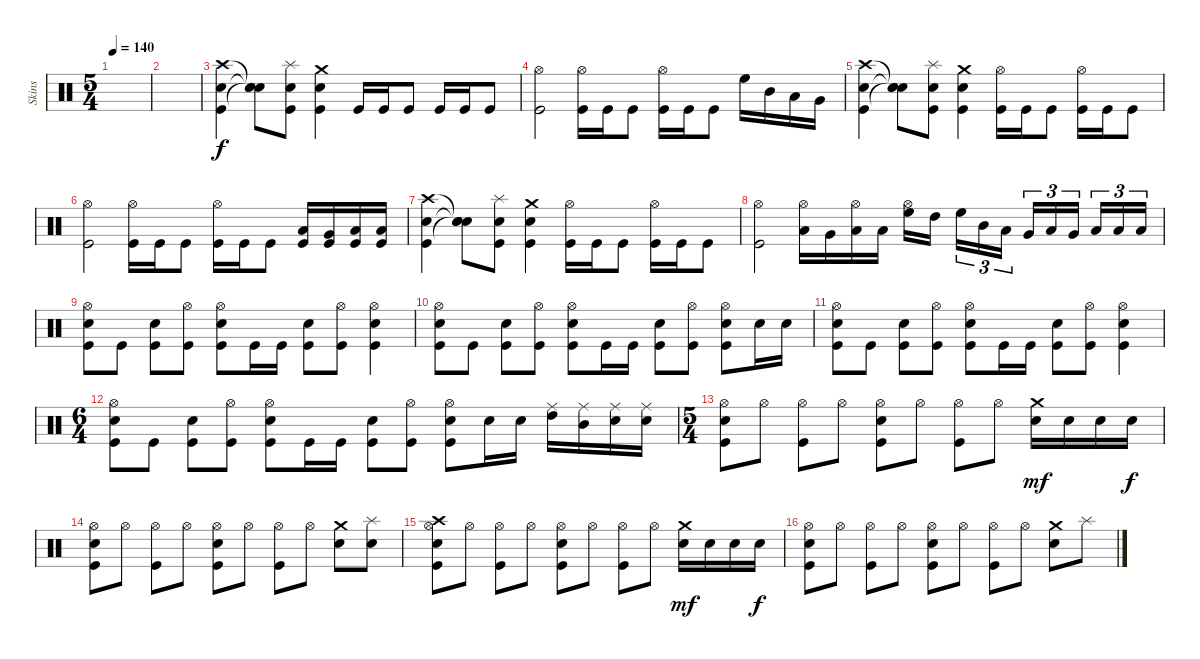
\track ("Skins" "Skins") {instrument percussion}
\staff {score}
\articulation defaults
\ts (5 4)
\tempo 140
\clef neutral
\ks c
|
|
("Crash high (hit)" "Electric Snare (hit)" "Kick (hit)").4 ("Snare (hit)"{t} "Snare (hit)"{t} "Snare (hit)"{t}).8 ("Splash (hit)" "Snare (hit) 2" "Kick (hit)").8 ("Crash medium (hit)" "Snare (hit) 2" "Kick (hit)").4 "Kick (hit)".16 "Kick (hit)".16 "Kick (hit)".8 "Kick (hit)".16 "Kick (hit)".16 "Kick (hit)".8 |
("Hi-Hat (open)" "Kick (hit)").2 ("Hi-Hat (open)" "Kick (hit)").16 "Kick (hit)".16 "Kick (hit)".8 ("Hi-Hat (open)" "Kick (hit)").16 "Kick (hit)".16 "Kick (hit)".8 "High Floor Tom (hit)".16 "Mid Tom (hit)".16 "Low Tom (hit)".16 "Very Low Tom (hit)".16 |
("Crash high (hit)" "Electric Snare (hit)" "Kick (hit)").4 ("Snare (hit)"{t} "Snare (hit)"{t} "Snare (hit)"{t}).8 ("Splash (hit)" "Snare (hit) 2" "Kick (hit)").8 ("Crash medium (hit)" "Snare (hit) 2" "Kick (hit)").4 ("Hi-Hat (open)" "Kick (hit)").16 "Kick (hit)".16 "Kick (hit)".8 ("Hi-Hat (open)" "Kick (hit)").16 "Kick (hit)".16 "Kick (hit)".8 |
("Hi-Hat (open)" "Kick (hit)").2 ("Hi-Hat (open)" "Kick (hit)").16 "Kick (hit)".16 "Kick (hit)".8 ("Hi-Hat (open)" "Kick (hit)").16 "Kick (hit)".16 "Kick (hit)".8 ("Low Tom (hit)" "Kick (hit)").16 ("Very Low Tom (hit)" "Kick (hit)").16 ("Low Floor Tom (hit)" "Kick (hit)").16 ("Low Floor Tom (hit)" "Kick (hit)").16 |
("Crash high (hit)" "Electric Snare (hit)" "Kick (hit)").4 ("Snare (hit)"{t} "Snare (hit)"{t} "Snare (hit)"{t}).8 ("Splash (hit)" "Snare (hit) 2" "Kick (hit)").8 ("Crash medium (hit)" "Snare (hit) 2" "Kick (hit)").4 ("Hi-Hat (open)" "Kick (hit)").16 "Kick (hit)".16 "Kick (hit)".8 ("Hi-Hat (open)" "Kick (hit)").16 "Kick (hit)".16 "Kick (hit)".8 |
("Hi-Hat (open)" "Kick (hit)").2 ("Low Tom (hit)" "Hi-Hat (open)").16 "Very Low Tom (hit)".16 ("Low Floor Tom (hit)" "Hi-Hat (open)").16 "Low Floor Tom (hit)".16 ("High Floor Tom (hit)" "Hi-Hat (open)").16 "High Tom (hit)".16 "High Floor Tom (hit)".16{tu (3 2)} "Mid Tom (hit)".16{tu (3 2)} "Low Tom (hit)".16{tu (3 2)} "Very Low Tom (hit)".16{tu (3 2)} "Low Floor Tom (hit)".16{tu (3 2)} "Very Low Tom (hit)".16{tu (3 2)} "Low Floor Tom (hit)".16{tu (3 2)} "Low Floor Tom (hit)".16{tu (3 2)} "Low Floor Tom (hit)".16{tu (3 2)} |
("Hi-Hat (open)" "Snare (hit) 2" "Kick (hit)").8 "Kick (hit)".8 ("Snare (hit) 2" "Kick (hit)").8 ("Hi-Hat (open)" "Kick (hit)").8 ("Hi-Hat (open)" "Snare (hit) 2" "Kick (hit)").8 "Kick (hit)".16 "Kick (hit)".16 ("Snare (hit) 2" "Kick (hit)").8 ("Hi-Hat (open)" "Kick (hit)").8 ("Hi-Hat (open)" "Electric Snare (hit)" "Kick (hit)").4 |
("Hi-Hat (open)" "Snare (hit) 2" "Kick (hit)").8 "Kick (hit)".8 ("Snare (hit) 2" "Kick (hit)").8 ("Hi-Hat (open)" "Kick (hit)").8 ("Hi-Hat (open)" "Snare (hit) 2" "Kick (hit)").8 "Kick (hit)".16 "Kick (hit)".16 ("Snare (hit) 2" "Kick (hit)").8 ("Hi-Hat (open)" "Kick (hit)").8 ("Hi-Hat (open)" "Electric Snare (hit)" "Kick (hit)").8 "Electric Snare (hit)".16 "Electric Snare (hit)".16 |
("Hi-Hat (open)" "Snare (hit) 2" "Kick (hit)").8 "Kick (hit)".8 ("Snare (hit) 2" "Kick (hit)").8 ("Hi-Hat (open)" "Kick (hit)").8 ("Hi-Hat (open)" "Snare (hit) 2" "Kick (hit)").8 "Kick (hit)".16 "Kick (hit)".16 ("Snare (hit) 2" "Kick (hit)").8 ("Hi-Hat (open)" "Kick (hit)").8 ("Hi-Hat (open)" "Electric Snare (hit)" "Kick (hit)").4 |
\ts (6 4)
("Hi-Hat (open)" "Snare (hit) 2" "Kick (hit)").8 "Kick (hit)".8 ("Snare (hit) 2" "Kick (hit)").8 ("Hi-Hat (open)" "Kick (hit)").8 ("Hi-Hat (open)" "Snare (hit) 2" "Kick (hit)").8 "Kick (hit)".16 "Kick (hit)".16 ("Snare (hit) 2" "Kick (hit)").8 ("Hi-Hat (open)" "Kick (hit)").8 ("Hi-Hat (open)" "Electric Snare (hit)" "Kick (hit)").8 "Electric Snare (hit)".16 "Electric Snare (hit)".16 ("Ride (middle)" "High Tom (hit)").16 ("Ride (middle)" "Mid Tom (hit)").16 ("Ride (middle)" "Snare (hit) 2").16 ("Ride (middle)" "Snare (hit) 2").16 |
\ts (5 4)
("Hi-Hat (open)" "Snare (hit) 2" "Kick (hit)").8 "Hi-Hat (open)".8 ("Hi-Hat (open)" "Kick (hit)").8 "Hi-Hat (open)".8 ("Hi-Hat (open)" "Snare (hit) 2" "Kick (hit)").8 "Hi-Hat (open)".8 ("Hi-Hat (open)" "Kick (hit)").8 "Hi-Hat (open)".8 ("Crash medium (hit)" "Electric Snare (hit)").16{dy mf} "Electric Snare (hit)".16 "Electric Snare (hit)".16 "Electric Snare (hit)".16{dy f} |
("Hi-Hat (open)" "Snare (hit) 2" "Kick (hit)").8 "Hi-Hat (open)".8 ("Hi-Hat (open)" "Kick (hit)").8 "Hi-Hat (open)".8 ("Hi-Hat (open)" "Snare (hit) 2" "Kick (hit)").8 "Hi-Hat (open)".8 ("Hi-Hat (open)" "Kick (hit)").8 "Hi-Hat (open)".8 ("Crash medium (hit)" "Electric Snare (hit)").8 ("Splash (hit)" "Electric Snare (hit)").8 |
("Crash high (hit)" "Hi-Hat (open)" "Snare (hit) 2" "Kick (hit)").8 "Hi-Hat (open)".8 ("Hi-Hat (open)" "Kick (hit)").8 "Hi-Hat (open)".8 ("Hi-Hat (open)" "Snare (hit) 2" "Kick (hit)").8 "Hi-Hat (open)".8 ("Hi-Hat (open)" "Kick (hit)").8 "Hi-Hat (open)".8 ("Crash medium (hit)" "Electric Snare (hit)").16{dy mf} "Electric Snare (hit)".16 "Electric Snare (hit)".16 "Electric Snare (hit)".16{dy f} |
("Hi-Hat (open)" "Snare (hit) 2" "Kick (hit)").8 "Hi-Hat (open)".8 ("Hi-Hat (open)" "Kick (hit)").8 "Hi-Hat (open)".8 ("Hi-Hat (open)" "Snare (hit) 2" "Kick (hit)").8 "Hi-Hat (open)".8 ("Hi-Hat (open)" "Kick (hit)").8 "Hi-Hat (open)".8 ("Crash medium (hit)" "Electric Snare (hit)").8 "Splash (hit)".8
